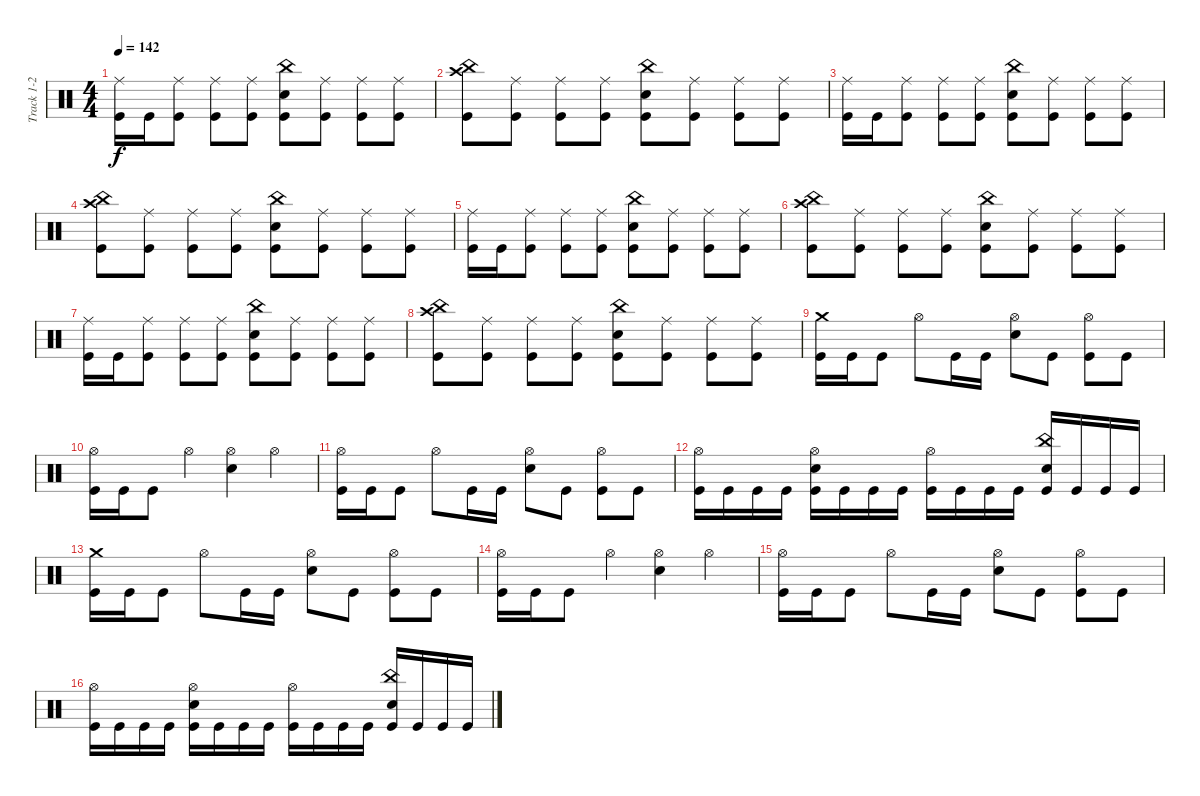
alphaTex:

\track ("Track 1-2" "Track 1-2") {instrument percussion}
\staff {score}
\articulation defaults
\ts (4 4)
\tempo 142
\clef neutral
\ks c
("Ride (middle)" "Kick (hit)").16{dy f} "Kick (hit)".16 ("Ride (middle)" "Kick (hit)").8 ("Ride (middle)" "Kick (hit)").8 ("Ride (middle)" "Kick (hit)").8 ("China (hit)" "Electric Snare (hit)" "Kick (hit)").8 ("Ride (middle)" "Kick (hit)").8 ("Ride (middle)" "Kick (hit)").8 ("Ride (middle)" "Kick (hit)").8 |
("China (hit)" "Crash high (hit)" "Kick (hit)").8 ("Ride (middle)" "Kick (hit)").8 ("Ride (middle)" "Kick (hit)").8 ("Ride (middle)" "Kick (hit)").8 ("China (hit)" "Electric Snare (hit)" "Kick (hit)").8 ("Ride (middle)" "Kick (hit)").8 ("Ride (middle)" "Kick (hit)").8 ("Ride (middle)" "Kick (hit)").8 |
("Ride (middle)" "Kick (hit)").16 "Kick (hit)".16 ("Ride (middle)" "Kick (hit)").8 ("Ride (middle)" "Kick (hit)").8 ("Ride (middle)" "Kick (hit)").8 ("China (hit)" "Electric Snare (hit)" "Kick (hit)").8 ("Ride (middle)" "Kick (hit)").8 ("Ride (middle)" "Kick (hit)").8 ("Ride (middle)" "Kick (hit)").8 |
("China (hit)" "Crash high (hit)" "Kick (hit)").8 ("Ride (middle)" "Kick (hit)").8 ("Ride (middle)" "Kick (hit)").8 ("Ride (middle)" "Kick (hit)").8 ("China (hit)" "Electric Snare (hit)" "Kick (hit)").8 ("Ride (middle)" "Kick (hit)").8 ("Ride (middle)" "Kick (hit)").8 ("Ride (middle)" "Kick (hit)").8 |
("Ride (middle)" "Kick (hit)").16 "Kick (hit)".16 ("Ride (middle)" "Kick (hit)").8 ("Ride (middle)" "Kick (hit)").8 ("Ride (middle)" "Kick (hit)").8 ("China (hit)" "Electric Snare (hit)" "Kick (hit)").8 ("Ride (middle)" "Kick (hit)").8 ("Ride (middle)" "Kick (hit)").8 ("Ride (middle)" "Kick (hit)").8 |
("China (hit)" "Crash high (hit)" "Kick (hit)").8 ("Ride (middle)" "Kick (hit)").8 ("Ride (middle)" "Kick (hit)").8 ("Ride (middle)" "Kick (hit)").8 ("China (hit)" "Electric Snare (hit)" "Kick (hit)").8 ("Ride (middle)" "Kick (hit)").8 ("Ride (middle)" "Kick (hit)").8 ("Ride (middle)" "Kick (hit)").8 |
("Ride (middle)" "Kick (hit)").16 "Kick (hit)".16 ("Ride (middle)" "Kick (hit)").8 ("Ride (middle)" "Kick (hit)").8 ("Ride (middle)" "Kick (hit)").8 ("China (hit)" "Electric Snare (hit)" "Kick (hit)").8 ("Ride (middle)" "Kick (hit)").8 ("Ride (middle)" "Kick (hit)").8 ("Ride (middle)" "Kick (hit)").8 |
("China (hit)" "Crash high (hit)" "Kick (hit)").8 ("Ride (middle)" "Kick (hit)").8 ("Ride (middle)" "Kick (hit)").8 ("Ride (middle)" "Kick (hit)").8 ("China (hit)" "Electric Snare (hit)" "Kick (hit)").8 ("Ride (middle)" "Kick (hit)").8 ("Ride (middle)" "Kick (hit)").8 ("Ride (middle)" "Kick (hit)").8 |
("Crash medium (hit)" "Kick (hit)").16 "Kick (hit)".16 "Kick (hit)".8 "Hi-Hat (open)".8 "Kick (hit)".16 "Kick (hit)".16 ("Hi-Hat (open)" "Electric Snare (hit)").8 "Kick (hit)".8 ("Hi-Hat (open)" "Kick (hit)").8 "Kick (hit)".8 |
("Hi-Hat (open)" "Kick (hit)").16 "Kick (hit)".16 "Kick (hit)".8 "Hi-Hat (open)".4 ("Hi-Hat (open)" "Electric Snare (hit)").4 "Hi-Hat (open)".4 |
("Hi-Hat (open)" "Kick (hit)").16 "Kick (hit)".16 "Kick (hit)".8 "Hi-Hat (open)".8 "Kick (hit)".16 "Kick (hit)".16 ("Hi-Hat (open)" "Electric Snare (hit)").8 "Kick (hit)".8 ("Hi-Hat (open)" "Kick (hit)").8 "Kick (hit)".8 |
("Hi-Hat (open)" "Kick (hit)").16 "Kick (hit)".16 "Kick (hit)".16 "Kick (hit)".16 ("Hi-Hat (open)" "Electric Snare (hit)" "Kick (hit)").16 "Kick (hit)".16 "Kick (hit)".16 "Kick (hit)".16 ("Hi-Hat (open)" "Kick (hit)").16 "Kick (hit)".16 "Kick (hit)".16 "Kick (hit)".16 ("China (hit)" "Electric Snare (hit)" "Kick (hit)").16 "Kick (hit)".16 "Kick (hit)".16 "Kick (hit)".16 |
("Crash medium (hit)" "Kick (hit)").16 "Kick (hit)".16 "Kick (hit)".8 "Hi-Hat (open)".8 "Kick (hit)".16 "Kick (hit)".16 ("Hi-Hat (open)" "Electric Snare (hit)").8 "Kick (hit)".8 ("Hi-Hat (open)" "Kick (hit)").8 "Kick (hit)".8 |
("Hi-Hat (open)" "Kick (hit)").16 "Kick (hit)".16 "Kick (hit)".8 "Hi-Hat (open)".4 ("Hi-Hat (open)" "Electric Snare (hit)").4 "Hi-Hat (open)".4 |
("Hi-Hat (open)" "Kick (hit)").16 "Kick (hit)".16 "Kick (hit)".8 "Hi-Hat (open)".8 "Kick (hit)".16 "Kick (hit)".16 ("Hi-Hat (open)" "Electric Snare (hit)").8 "Kick (hit)".8 ("Hi-Hat (open)" "Kick (hit)").8 "Kick (hit)".8 |
("Hi-Hat (open)" "Kick (hit)").16 "Kick (hit)".16 "Kick (hit)".16 "Kick (hit)".16 ("Hi-Hat (open)" "Electric Snare (hit)" "Kick (hit)").16 "Kick (hit)".16 "Kick (hit)".16 "Kick (hit)".16 ("Hi-Hat (open)" "Kick (hit)").16 "Kick (hit)".16 "Kick (hit)".16 "Kick (hit)".16 ("China (hit)" "Electric Snare (hit)" "Kick (hit)").16 "Kick (hit)".16 "Kick (hit)".16 "Kick (hit)".16
